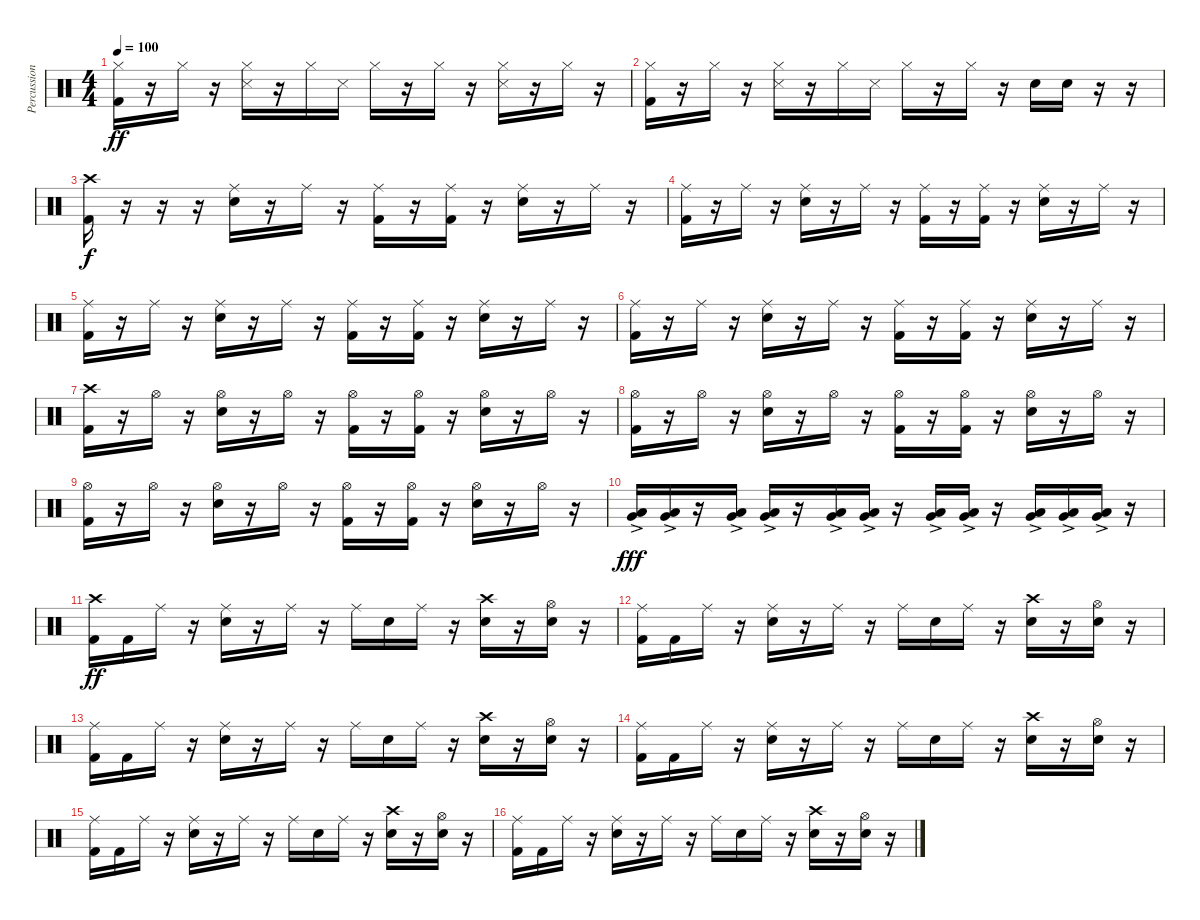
\track ("Percussion" "Percussion") {instrument percussion}
\staff {score}
\articulation defaults
\ts (4 4)
\tempo 100
\clef neutral
\ks c
("Hi-Hat (closed)" "Kick (hit) 2").16{dy ff} r.16 "Hi-Hat (closed)".16 r.16 ("Hi-Hat (closed)" "Snare (side stick) 3").16 r.16 "Hi-Hat (closed)".16 "Snare (side stick) 3".16 "Hi-Hat (closed)".16 r.16 "Hi-Hat (closed)".16 r.16 ("Hi-Hat (closed)" "Snare (side stick) 3").16 r.16 "Hi-Hat (closed)".16 r.16 |
("Hi-Hat (closed)" "Kick (hit) 2").16 r.16 "Hi-Hat (closed)".16 r.16 ("Hi-Hat (closed)" "Snare (side stick) 3").16 r.16 "Hi-Hat (closed)".16 "Snare (side stick) 3".16 "Hi-Hat (closed)".16 r.16 "Hi-Hat (closed)".16 r.16 "Electric Snare (hit)".16 "Electric Snare (hit)".16 r.16 r.16 |
("Kick (hit) 2" "Crash high (hit)").16{dy f} r.16 r.16 r.16 ("Ride (middle)" "Electric Snare (hit)").16 r.16 "Ride (middle)".16 r.16 ("Ride (middle)" "Kick (hit) 2").16 r.16 ("Ride (middle)" "Kick (hit) 2").16 r.16 ("Ride (middle)" "Electric Snare (hit)").16 r.16 "Ride (middle)".16 r.16 |
("Ride (middle)" "Kick (hit) 2").16 r.16 "Ride (middle)".16 r.16 ("Ride (middle)" "Electric Snare (hit)").16 r.16 "Ride (middle)".16 r.16 ("Ride (middle)" "Kick (hit) 2").16 r.16 ("Ride (middle)" "Kick (hit) 2").16 r.16 ("Ride (middle)" "Electric Snare (hit)").16 r.16 "Ride (middle)".16 r.16 |
("Ride (middle)" "Kick (hit) 2").16 r.16 "Ride (middle)".16 r.16 ("Ride (middle)" "Electric Snare (hit)").16 r.16 "Ride (middle)".16 r.16 ("Ride (middle)" "Kick (hit) 2").16 r.16 ("Ride (middle)" "Kick (hit) 2").16 r.16 ("Ride (middle)" "Electric Snare (hit)").16 r.16 "Ride (middle)".16 r.16 |
("Ride (middle)" "Kick (hit) 2").16 r.16 "Ride (middle)".16 r.16 ("Ride (middle)" "Electric Snare (hit)").16 r.16 "Ride (middle)".16 r.16 ("Ride (middle)" "Kick (hit) 2").16 r.16 ("Ride (middle)" "Kick (hit) 2").16 r.16 ("Ride (middle)" "Electric Snare (hit)").16 r.16 "Ride (middle)".16 r.16 |
("Kick (hit) 2" "Crash high (hit)").16 r.16 "Hi-Hat (open)".16 r.16 ("Hi-Hat (open)" "Electric Snare (hit)").16 r.16 "Hi-Hat (open)".16 r.16 ("Hi-Hat (open)" "Kick (hit) 2").16 r.16 ("Hi-Hat (open)" "Kick (hit) 2").16 r.16 ("Hi-Hat (open)" "Electric Snare (hit)").16 r.16 "Hi-Hat (open)".16 r.16 |
("Hi-Hat (open)" "Kick (hit) 2").16 r.16 "Hi-Hat (open)".16 r.16 ("Hi-Hat (open)" "Electric Snare (hit)").16 r.16 "Hi-Hat (open)".16 r.16 ("Hi-Hat (open)" "Kick (hit) 2").16 r.16 ("Hi-Hat (open)" "Kick (hit) 2").16 r.16 ("Hi-Hat (open)" "Electric Snare (hit)").16 r.16 "Hi-Hat (open)".16 r.16 |
("Hi-Hat (open)" "Kick (hit) 2").16 r.16 "Hi-Hat (open)".16 r.16 ("Hi-Hat (open)" "Electric Snare (hit)").16 r.16 "Hi-Hat (open)".16 r.16 ("Hi-Hat (open)" "Kick (hit) 2").16 r.16 ("Hi-Hat (open)" "Kick (hit) 2").16 r.16 ("Hi-Hat (open)" "Electric Snare (hit)").16 r.16 "Hi-Hat (open)".16 r.16 |
("Low Tom (hit)" "Very Low Tom (hit)"{ac}).16{dy fff} ("Low Tom (hit)" "Very Low Tom (hit)"{ac}).16 r.16 ("Low Tom (hit)" "Very Low Tom (hit)"{ac}).16 ("Low Tom (hit)" "Very Low Tom (hit)"{ac}).16 r.16 ("Low Tom (hit)" "Very Low Tom (hit)"{ac}).16 ("Low Tom (hit)" "Very Low Tom (hit)"{ac}).16 r.16 ("Low Tom (hit)" "Very Low Tom (hit)"{ac}).16 ("Low Tom (hit)" "Very Low Tom (hit)"{ac}).16 r.16 ("Low Tom (hit)" "Very Low Tom (hit)"{ac}).16 ("Low Tom (hit)" "Very Low Tom (hit)"{ac}).16 ("Low Tom (hit)" "Very Low Tom (hit)"{ac}).16 r.16 |
("Crash high (hit)" "Kick (hit) 2").16{dy ff} "Kick (hit) 2".16 "Ride (middle)".16 r.16 ("Ride (middle)" "Electric Snare (hit)").16 r.16 "Ride (middle)".16 r.16 "Ride (middle)".16 "Electric Snare (hit)".16 "Ride (middle)".16 r.16 ("Crash high (hit)" "Electric Snare (hit)").16 r.16 ("Hi-Hat (open)" "Electric Snare (hit)").16 r.16 |
("Ride (middle)" "Kick (hit) 2").16 "Kick (hit) 2".16 "Ride (middle)".16 r.16 ("Ride (middle)" "Electric Snare (hit)").16 r.16 "Ride (middle)".16 r.16 "Ride (middle)".16 "Electric Snare (hit)".16 "Ride (middle)".16 r.16 ("Crash high (hit)" "Electric Snare (hit)").16 r.16 ("Hi-Hat (open)" "Electric Snare (hit)").16 r.16 |
("Ride (middle)" "Kick (hit) 2").16 "Kick (hit) 2".16 "Ride (middle)".16 r.16 ("Ride (middle)" "Electric Snare (hit)").16 r.16 "Ride (middle)".16 r.16 "Ride (middle)".16 "Electric Snare (hit)".16 "Ride (middle)".16 r.16 ("Crash high (hit)" "Electric Snare (hit)").16 r.16 ("Hi-Hat (open)" "Electric Snare (hit)").16 r.16 |
("Ride (middle)" "Kick (hit) 2").16 "Kick (hit) 2".16 "Ride (middle)".16 r.16 ("Ride (middle)" "Electric Snare (hit)").16 r.16 "Ride (middle)".16 r.16 "Ride (middle)".16 "Electric Snare (hit)".16 "Ride (middle)".16 r.16 ("Crash high (hit)" "Electric Snare (hit)").16 r.16 ("Hi-Hat (open)" "Electric Snare (hit)").16 r.16 |
("Ride (middle)" "Kick (hit) 2").16 "Kick (hit) 2".16 "Ride (middle)".16 r.16 ("Ride (middle)" "Electric Snare (hit)").16 r.16 "Ride (middle)".16 r.16 "Ride (middle)".16 "Electric Snare (hit)".16 "Ride (middle)".16 r.16 ("Crash high (hit)" "Electric Snare (hit)").16 r.16 ("Hi-Hat (open)" "Electric Snare (hit)").16 r.16 |
("Ride (middle)" "Kick (hit) 2").16 "Kick (hit) 2".16 "Ride (middle)".16 r.16 ("Ride (middle)" "Electric Snare (hit)").16 r.16 "Ride (middle)".16 r.16 "Ride (middle)".16 "Electric Snare (hit)".16 "Ride (middle)".16 r.16 ("Crash high (hit)" "Electric Snare (hit)").16 r.16 ("Hi-Hat (open)" "Electric Snare (hit)").16 r.16
